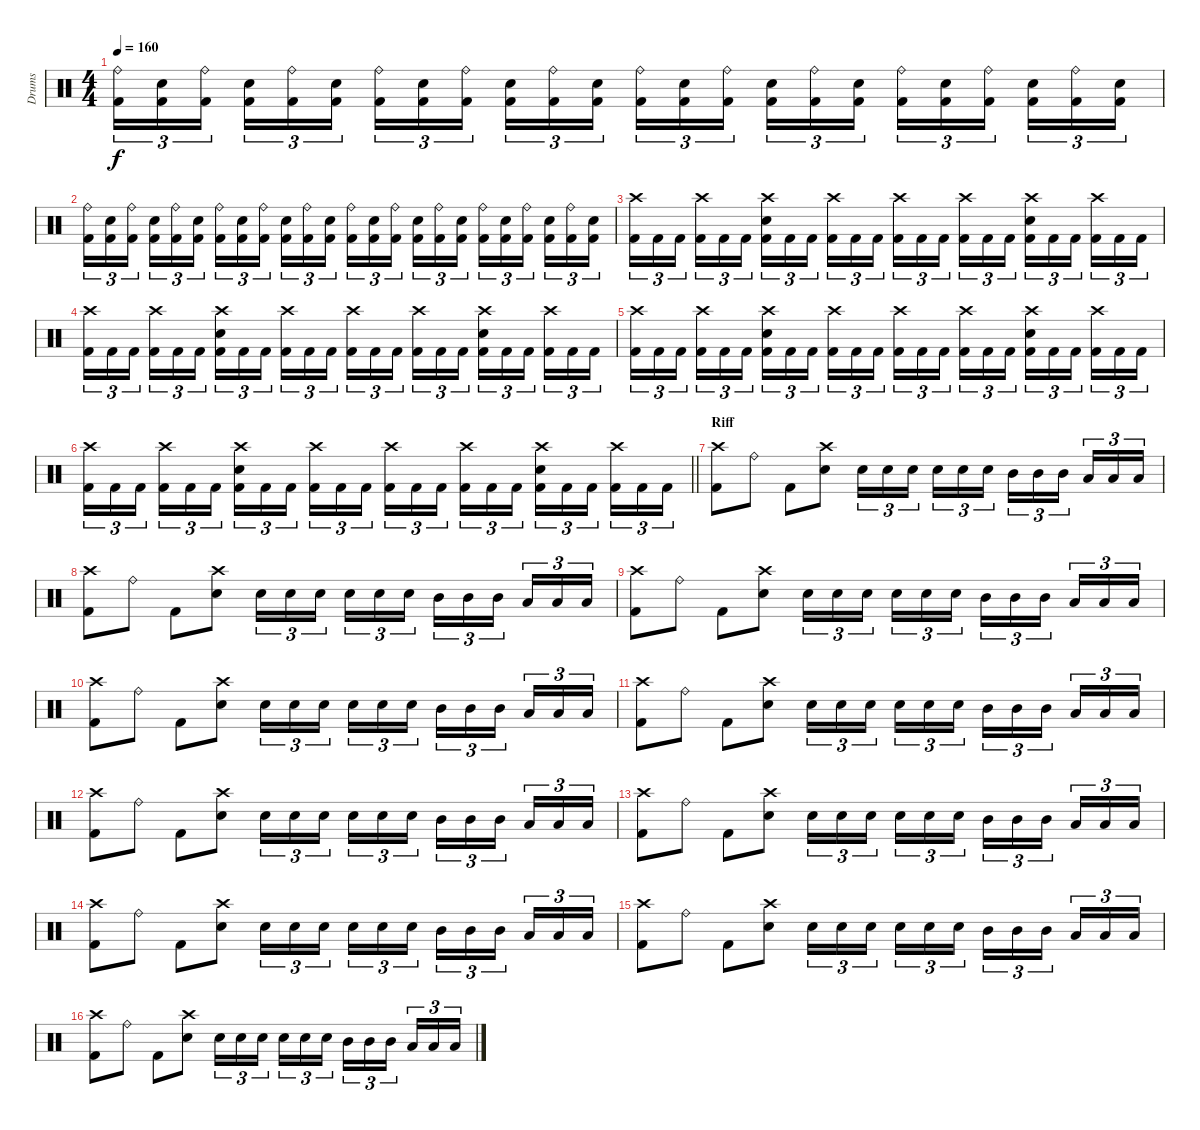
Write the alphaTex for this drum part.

\track ("Drums" "Drums") {instrument percussion}
\staff {score}
\articulation defaults
\ts (4 4)
\tempo 160
\clef neutral
\ks c
("Ride (bell)" "Kick (hit) 2").16{tu (3 2) dy f} ("Electric Snare (hit)" "Kick (hit) 2").16{tu (3 2)} ("Ride (bell)" "Kick (hit) 2").16{tu (3 2) beam splitsecondary} ("Electric Snare (hit)" "Kick (hit) 2").16{tu (3 2)} ("Ride (bell)" "Kick (hit) 2").16{tu (3 2)} ("Electric Snare (hit)" "Kick (hit) 2").16{tu (3 2)} ("Ride (bell)" "Kick (hit) 2").16{tu (3 2)} ("Electric Snare (hit)" "Kick (hit) 2").16{tu (3 2)} ("Ride (bell)" "Kick (hit) 2").16{tu (3 2) beam splitsecondary} ("Electric Snare (hit)" "Kick (hit) 2").16{tu (3 2)} ("Ride (bell)" "Kick (hit) 2").16{tu (3 2)} ("Electric Snare (hit)" "Kick (hit) 2").16{tu (3 2)} ("Ride (bell)" "Kick (hit) 2").16{tu (3 2)} ("Electric Snare (hit)" "Kick (hit) 2").16{tu (3 2)} ("Ride (bell)" "Kick (hit) 2").16{tu (3 2) beam splitsecondary} ("Electric Snare (hit)" "Kick (hit) 2").16{tu (3 2)} ("Ride (bell)" "Kick (hit) 2").16{tu (3 2)} ("Electric Snare (hit)" "Kick (hit) 2").16{tu (3 2)} ("Ride (bell)" "Kick (hit) 2").16{tu (3 2)} ("Electric Snare (hit)" "Kick (hit) 2").16{tu (3 2)} ("Ride (bell)" "Kick (hit) 2").16{tu (3 2) beam splitsecondary} ("Electric Snare (hit)" "Kick (hit) 2").16{tu (3 2)} ("Ride (bell)" "Kick (hit) 2").16{tu (3 2)} ("Electric Snare (hit)" "Kick (hit) 2").16{tu (3 2)} |
("Ride (bell)" "Kick (hit) 2").16{tu (3 2)} ("Electric Snare (hit)" "Kick (hit) 2").16{tu (3 2)} ("Ride (bell)" "Kick (hit) 2").16{tu (3 2) beam splitsecondary} ("Electric Snare (hit)" "Kick (hit) 2").16{tu (3 2)} ("Ride (bell)" "Kick (hit) 2").16{tu (3 2)} ("Electric Snare (hit)" "Kick (hit) 2").16{tu (3 2)} ("Ride (bell)" "Kick (hit) 2").16{tu (3 2)} ("Electric Snare (hit)" "Kick (hit) 2").16{tu (3 2)} ("Ride (bell)" "Kick (hit) 2").16{tu (3 2) beam splitsecondary} ("Electric Snare (hit)" "Kick (hit) 2").16{tu (3 2)} ("Ride (bell)" "Kick (hit) 2").16{tu (3 2)} ("Electric Snare (hit)" "Kick (hit) 2").16{tu (3 2)} ("Ride (bell)" "Kick (hit) 2").16{tu (3 2)} ("Electric Snare (hit)" "Kick (hit) 2").16{tu (3 2)} ("Ride (bell)" "Kick (hit) 2").16{tu (3 2) beam splitsecondary} ("Electric Snare (hit)" "Kick (hit) 2").16{tu (3 2)} ("Ride (bell)" "Kick (hit) 2").16{tu (3 2)} ("Electric Snare (hit)" "Kick (hit) 2").16{tu (3 2)} ("Ride (bell)" "Kick (hit) 2").16{tu (3 2)} ("Electric Snare (hit)" "Kick (hit) 2").16{tu (3 2)} ("Ride (bell)" "Kick (hit) 2").16{tu (3 2) beam splitsecondary} ("Electric Snare (hit)" "Kick (hit) 2").16{tu (3 2)} ("Ride (bell)" "Kick (hit) 2").16{tu (3 2)} ("Electric Snare (hit)" "Kick (hit) 2").16{tu (3 2)} |
("Crash high (hit)" "Kick (hit) 2").16{tu (3 2)} "Kick (hit) 2".16{tu (3 2)} "Kick (hit) 2".16{tu (3 2) beam splitsecondary} ("Crash high (hit)" "Kick (hit) 2").16{tu (3 2)} "Kick (hit) 2".16{tu (3 2)} "Kick (hit) 2".16{tu (3 2)} ("Crash high (hit)" "Electric Snare (hit)" "Kick (hit) 2").16{tu (3 2)} "Kick (hit) 2".16{tu (3 2)} "Kick (hit) 2".16{tu (3 2) beam splitsecondary} ("Crash high (hit)" "Kick (hit) 2").16{tu (3 2)} "Kick (hit) 2".16{tu (3 2)} "Kick (hit) 2".16{tu (3 2)} ("Crash high (hit)" "Kick (hit) 2").16{tu (3 2)} "Kick (hit) 2".16{tu (3 2)} "Kick (hit) 2".16{tu (3 2) beam splitsecondary} ("Crash high (hit)" "Kick (hit) 2").16{tu (3 2)} "Kick (hit) 2".16{tu (3 2)} "Kick (hit) 2".16{tu (3 2)} ("Crash high (hit)" "Electric Snare (hit)" "Kick (hit) 2").16{tu (3 2)} "Kick (hit) 2".16{tu (3 2)} "Kick (hit) 2".16{tu (3 2) beam splitsecondary} ("Crash high (hit)" "Kick (hit) 2").16{tu (3 2)} "Kick (hit) 2".16{tu (3 2)} "Kick (hit) 2".16{tu (3 2)} |
("Crash high (hit)" "Kick (hit) 2").16{tu (3 2)} "Kick (hit) 2".16{tu (3 2)} "Kick (hit) 2".16{tu (3 2) beam splitsecondary} ("Crash high (hit)" "Kick (hit) 2").16{tu (3 2)} "Kick (hit) 2".16{tu (3 2)} "Kick (hit) 2".16{tu (3 2)} ("Crash high (hit)" "Electric Snare (hit)" "Kick (hit) 2").16{tu (3 2)} "Kick (hit) 2".16{tu (3 2)} "Kick (hit) 2".16{tu (3 2) beam splitsecondary} ("Crash high (hit)" "Kick (hit) 2").16{tu (3 2)} "Kick (hit) 2".16{tu (3 2)} "Kick (hit) 2".16{tu (3 2)} ("Crash high (hit)" "Kick (hit) 2").16{tu (3 2)} "Kick (hit) 2".16{tu (3 2)} "Kick (hit) 2".16{tu (3 2) beam splitsecondary} ("Crash high (hit)" "Kick (hit) 2").16{tu (3 2)} "Kick (hit) 2".16{tu (3 2)} "Kick (hit) 2".16{tu (3 2)} ("Crash high (hit)" "Electric Snare (hit)" "Kick (hit) 2").16{tu (3 2)} "Kick (hit) 2".16{tu (3 2)} "Kick (hit) 2".16{tu (3 2) beam splitsecondary} ("Crash high (hit)" "Kick (hit) 2").16{tu (3 2)} "Kick (hit) 2".16{tu (3 2)} "Kick (hit) 2".16{tu (3 2)} |
("Crash high (hit)" "Kick (hit) 2").16{tu (3 2)} "Kick (hit) 2".16{tu (3 2)} "Kick (hit) 2".16{tu (3 2) beam splitsecondary} ("Crash high (hit)" "Kick (hit) 2").16{tu (3 2)} "Kick (hit) 2".16{tu (3 2)} "Kick (hit) 2".16{tu (3 2)} ("Crash high (hit)" "Electric Snare (hit)" "Kick (hit) 2").16{tu (3 2)} "Kick (hit) 2".16{tu (3 2)} "Kick (hit) 2".16{tu (3 2) beam splitsecondary} ("Crash high (hit)" "Kick (hit) 2").16{tu (3 2)} "Kick (hit) 2".16{tu (3 2)} "Kick (hit) 2".16{tu (3 2)} ("Crash high (hit)" "Kick (hit) 2").16{tu (3 2)} "Kick (hit) 2".16{tu (3 2)} "Kick (hit) 2".16{tu (3 2) beam splitsecondary} ("Crash high (hit)" "Kick (hit) 2").16{tu (3 2)} "Kick (hit) 2".16{tu (3 2)} "Kick (hit) 2".16{tu (3 2)} ("Crash high (hit)" "Electric Snare (hit)" "Kick (hit) 2").16{tu (3 2)} "Kick (hit) 2".16{tu (3 2)} "Kick (hit) 2".16{tu (3 2) beam splitsecondary} ("Crash high (hit)" "Kick (hit) 2").16{tu (3 2)} "Kick (hit) 2".16{tu (3 2)} "Kick (hit) 2".16{tu (3 2)} |
\barLineRight lightlight
("Crash high (hit)" "Kick (hit) 2").16{tu (3 2)} "Kick (hit) 2".16{tu (3 2)} "Kick (hit) 2".16{tu (3 2) beam splitsecondary} ("Crash high (hit)" "Kick (hit) 2").16{tu (3 2)} "Kick (hit) 2".16{tu (3 2)} "Kick (hit) 2".16{tu (3 2)} ("Crash high (hit)" "Electric Snare (hit)" "Kick (hit) 2").16{tu (3 2)} "Kick (hit) 2".16{tu (3 2)} "Kick (hit) 2".16{tu (3 2) beam splitsecondary} ("Crash high (hit)" "Kick (hit) 2").16{tu (3 2)} "Kick (hit) 2".16{tu (3 2)} "Kick (hit) 2".16{tu (3 2)} ("Crash high (hit)" "Kick (hit) 2").16{tu (3 2)} "Kick (hit) 2".16{tu (3 2)} "Kick (hit) 2".16{tu (3 2) beam splitsecondary} ("Crash high (hit)" "Kick (hit) 2").16{tu (3 2)} "Kick (hit) 2".16{tu (3 2)} "Kick (hit) 2".16{tu (3 2)} ("Crash high (hit)" "Electric Snare (hit)" "Kick (hit) 2").16{tu (3 2)} "Kick (hit) 2".16{tu (3 2)} "Kick (hit) 2".16{tu (3 2) beam splitsecondary} ("Crash high (hit)" "Kick (hit) 2").16{tu (3 2)} "Kick (hit) 2".16{tu (3 2)} "Kick (hit) 2".16{tu (3 2)} |
\section ("" "Riff")
("Crash high (hit)" "Kick (hit) 2").8 "Ride (bell)".8 "Kick (hit) 2".8 ("Crash high (hit)" "Electric Snare (hit)").8 "Electric Snare (hit)".16{tu (3 2)} "Electric Snare (hit)".16{tu (3 2)} "Electric Snare (hit)".16{tu (3 2) beam splitsecondary} "Electric Snare (hit)".16{tu (3 2)} "Electric Snare (hit)".16{tu (3 2)} "Electric Snare (hit)".16{tu (3 2)} "Mid Tom (hit)".16{tu (3 2)} "Mid Tom (hit)".16{tu (3 2)} "Mid Tom (hit)".16{tu (3 2) beam splitsecondary} "Low Tom (hit)".16{tu (3 2)} "Low Tom (hit)".16{tu (3 2)} "Low Tom (hit)".16{tu (3 2)} |
("Crash high (hit)" "Kick (hit) 2").8 "Ride (bell)".8 "Kick (hit) 2".8 ("Crash high (hit)" "Electric Snare (hit)").8 "Electric Snare (hit)".16{tu (3 2)} "Electric Snare (hit)".16{tu (3 2)} "Electric Snare (hit)".16{tu (3 2) beam splitsecondary} "Electric Snare (hit)".16{tu (3 2)} "Electric Snare (hit)".16{tu (3 2)} "Electric Snare (hit)".16{tu (3 2)} "Mid Tom (hit)".16{tu (3 2)} "Mid Tom (hit)".16{tu (3 2)} "Mid Tom (hit)".16{tu (3 2) beam splitsecondary} "Low Tom (hit)".16{tu (3 2)} "Low Tom (hit)".16{tu (3 2)} "Low Tom (hit)".16{tu (3 2)} |
("Crash high (hit)" "Kick (hit) 2").8 "Ride (bell)".8 "Kick (hit) 2".8 ("Crash high (hit)" "Electric Snare (hit)").8 "Electric Snare (hit)".16{tu (3 2)} "Electric Snare (hit)".16{tu (3 2)} "Electric Snare (hit)".16{tu (3 2) beam splitsecondary} "Electric Snare (hit)".16{tu (3 2)} "Electric Snare (hit)".16{tu (3 2)} "Electric Snare (hit)".16{tu (3 2)} "Mid Tom (hit)".16{tu (3 2)} "Mid Tom (hit)".16{tu (3 2)} "Mid Tom (hit)".16{tu (3 2) beam splitsecondary} "Low Tom (hit)".16{tu (3 2)} "Low Tom (hit)".16{tu (3 2)} "Low Tom (hit)".16{tu (3 2)} |
("Crash high (hit)" "Kick (hit) 2").8 "Ride (bell)".8 "Kick (hit) 2".8 ("Crash high (hit)" "Electric Snare (hit)").8 "Electric Snare (hit)".16{tu (3 2)} "Electric Snare (hit)".16{tu (3 2)} "Electric Snare (hit)".16{tu (3 2) beam splitsecondary} "Electric Snare (hit)".16{tu (3 2)} "Electric Snare (hit)".16{tu (3 2)} "Electric Snare (hit)".16{tu (3 2)} "Mid Tom (hit)".16{tu (3 2)} "Mid Tom (hit)".16{tu (3 2)} "Mid Tom (hit)".16{tu (3 2) beam splitsecondary} "Low Tom (hit)".16{tu (3 2)} "Low Tom (hit)".16{tu (3 2)} "Low Tom (hit)".16{tu (3 2)} |
("Crash high (hit)" "Kick (hit) 2").8 "Ride (bell)".8 "Kick (hit) 2".8 ("Crash high (hit)" "Electric Snare (hit)").8 "Electric Snare (hit)".16{tu (3 2)} "Electric Snare (hit)".16{tu (3 2)} "Electric Snare (hit)".16{tu (3 2) beam splitsecondary} "Electric Snare (hit)".16{tu (3 2)} "Electric Snare (hit)".16{tu (3 2)} "Electric Snare (hit)".16{tu (3 2)} "Mid Tom (hit)".16{tu (3 2)} "Mid Tom (hit)".16{tu (3 2)} "Mid Tom (hit)".16{tu (3 2) beam splitsecondary} "Low Tom (hit)".16{tu (3 2)} "Low Tom (hit)".16{tu (3 2)} "Low Tom (hit)".16{tu (3 2)} |
("Crash high (hit)" "Kick (hit) 2").8 "Ride (bell)".8 "Kick (hit) 2".8 ("Crash high (hit)" "Electric Snare (hit)").8 "Electric Snare (hit)".16{tu (3 2)} "Electric Snare (hit)".16{tu (3 2)} "Electric Snare (hit)".16{tu (3 2) beam splitsecondary} "Electric Snare (hit)".16{tu (3 2)} "Electric Snare (hit)".16{tu (3 2)} "Electric Snare (hit)".16{tu (3 2)} "Mid Tom (hit)".16{tu (3 2)} "Mid Tom (hit)".16{tu (3 2)} "Mid Tom (hit)".16{tu (3 2) beam splitsecondary} "Low Tom (hit)".16{tu (3 2)} "Low Tom (hit)".16{tu (3 2)} "Low Tom (hit)".16{tu (3 2)} |
("Crash high (hit)" "Kick (hit) 2").8 "Ride (bell)".8 "Kick (hit) 2".8 ("Crash high (hit)" "Electric Snare (hit)").8 "Electric Snare (hit)".16{tu (3 2)} "Electric Snare (hit)".16{tu (3 2)} "Electric Snare (hit)".16{tu (3 2) beam splitsecondary} "Electric Snare (hit)".16{tu (3 2)} "Electric Snare (hit)".16{tu (3 2)} "Electric Snare (hit)".16{tu (3 2)} "Mid Tom (hit)".16{tu (3 2)} "Mid Tom (hit)".16{tu (3 2)} "Mid Tom (hit)".16{tu (3 2) beam splitsecondary} "Low Tom (hit)".16{tu (3 2)} "Low Tom (hit)".16{tu (3 2)} "Low Tom (hit)".16{tu (3 2)} |
("Crash high (hit)" "Kick (hit) 2").8 "Ride (bell)".8 "Kick (hit) 2".8 ("Crash high (hit)" "Electric Snare (hit)").8 "Electric Snare (hit)".16{tu (3 2)} "Electric Snare (hit)".16{tu (3 2)} "Electric Snare (hit)".16{tu (3 2) beam splitsecondary} "Electric Snare (hit)".16{tu (3 2)} "Electric Snare (hit)".16{tu (3 2)} "Electric Snare (hit)".16{tu (3 2)} "Mid Tom (hit)".16{tu (3 2)} "Mid Tom (hit)".16{tu (3 2)} "Mid Tom (hit)".16{tu (3 2) beam splitsecondary} "Low Tom (hit)".16{tu (3 2)} "Low Tom (hit)".16{tu (3 2)} "Low Tom (hit)".16{tu (3 2)} |
("Crash high (hit)" "Kick (hit) 2").8 "Ride (bell)".8 "Kick (hit) 2".8 ("Crash high (hit)" "Electric Snare (hit)").8 "Electric Snare (hit)".16{tu (3 2)} "Electric Snare (hit)".16{tu (3 2)} "Electric Snare (hit)".16{tu (3 2) beam splitsecondary} "Electric Snare (hit)".16{tu (3 2)} "Electric Snare (hit)".16{tu (3 2)} "Electric Snare (hit)".16{tu (3 2)} "Mid Tom (hit)".16{tu (3 2)} "Mid Tom (hit)".16{tu (3 2)} "Mid Tom (hit)".16{tu (3 2) beam splitsecondary} "Low Tom (hit)".16{tu (3 2)} "Low Tom (hit)".16{tu (3 2)} "Low Tom (hit)".16{tu (3 2)} |
("Crash high (hit)" "Kick (hit) 2").8 "Ride (bell)".8 "Kick (hit) 2".8 ("Crash high (hit)" "Electric Snare (hit)").8 "Electric Snare (hit)".16{tu (3 2)} "Electric Snare (hit)".16{tu (3 2)} "Electric Snare (hit)".16{tu (3 2) beam splitsecondary} "Electric Snare (hit)".16{tu (3 2)} "Electric Snare (hit)".16{tu (3 2)} "Electric Snare (hit)".16{tu (3 2)} "Mid Tom (hit)".16{tu (3 2)} "Mid Tom (hit)".16{tu (3 2)} "Mid Tom (hit)".16{tu (3 2) beam splitsecondary} "Low Tom (hit)".16{tu (3 2)} "Low Tom (hit)".16{tu (3 2)} "Low Tom (hit)".16{tu (3 2)}
